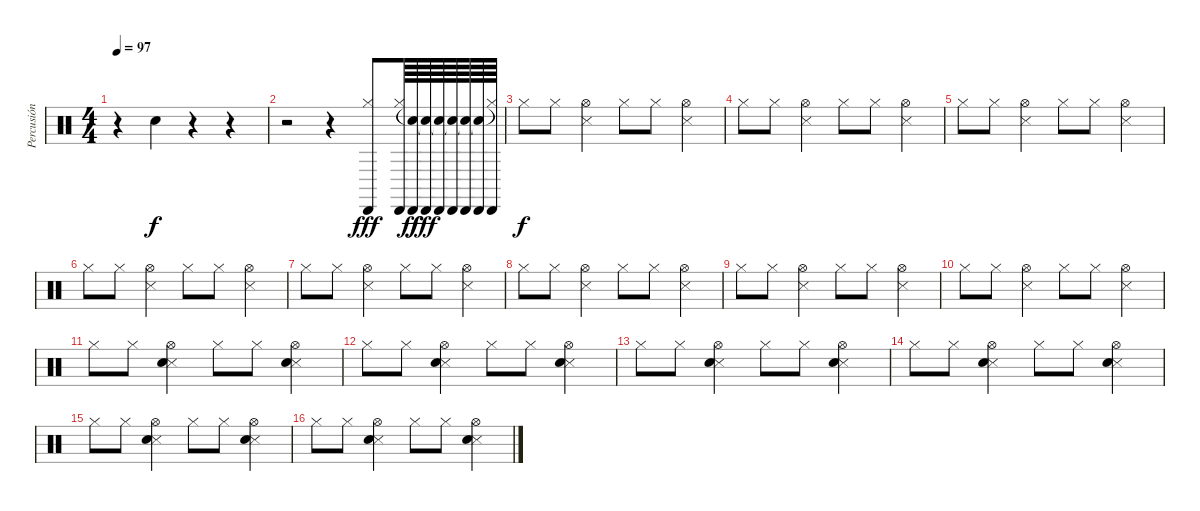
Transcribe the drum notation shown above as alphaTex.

\track ("Percusión" "Percusión") {instrument percussion}
\staff {score}
\articulation defaults
\ts (4 4)
\tempo 97
\clef neutral
\ks c
r.4{dy f} "Electric Snare (hit)".4 r.4 r.4 |
r.2 r.4 ("Hi-Hat (closed)" "Cabasa (hit)").8{dy fff} ("Hi-Hat (closed)" "Cabasa (hit)").64 ("Snare (hit)"{t} "Cabasa (hit)").64{dy ff} ("Snare (hit)"{t} "Cabasa (hit)").64{dy fff} ("Snare (hit)"{t} "Cabasa (hit)").64 ("Snare (hit)"{t} "Cabasa (hit)").64 ("Snare (hit)"{t} "Cabasa (hit)").64 ("Snare (hit)"{t} "Cabasa (hit)").64 ("Hi-Hat (closed)"{t} "Cabasa (hit)").64 |
"Hi-Hat (closed)".8{dy f} "Hi-Hat (closed)".8 ("Hi-Hat (open)" "Snare (side stick) 3").4 "Hi-Hat (closed)".8 "Hi-Hat (closed)".8 ("Hi-Hat (open)" "Snare (side stick) 3").4 |
"Hi-Hat (closed)".8 "Hi-Hat (closed)".8 ("Hi-Hat (open)" "Snare (side stick) 3").4 "Hi-Hat (closed)".8 "Hi-Hat (closed)".8 ("Hi-Hat (open)" "Snare (side stick) 3").4 |
"Hi-Hat (closed)".8 "Hi-Hat (closed)".8 ("Hi-Hat (open)" "Snare (side stick) 3").4 "Hi-Hat (closed)".8 "Hi-Hat (closed)".8 ("Hi-Hat (open)" "Snare (side stick) 3").4 |
"Hi-Hat (closed)".8 "Hi-Hat (closed)".8 ("Hi-Hat (open)" "Snare (side stick) 3").4 "Hi-Hat (closed)".8 "Hi-Hat (closed)".8 ("Hi-Hat (open)" "Snare (side stick) 3").4 |
"Hi-Hat (closed)".8 "Hi-Hat (closed)".8 ("Hi-Hat (open)" "Snare (side stick) 3").4 "Hi-Hat (closed)".8 "Hi-Hat (closed)".8 ("Hi-Hat (open)" "Snare (side stick) 3").4 |
"Hi-Hat (closed)".8 "Hi-Hat (closed)".8 ("Hi-Hat (open)" "Snare (side stick) 3").4 "Hi-Hat (closed)".8 "Hi-Hat (closed)".8 ("Hi-Hat (open)" "Snare (side stick) 3").4 |
"Hi-Hat (closed)".8 "Hi-Hat (closed)".8 ("Hi-Hat (open)" "Snare (side stick) 3").4 "Hi-Hat (closed)".8 "Hi-Hat (closed)".8 ("Hi-Hat (open)" "Snare (side stick) 3").4 |
"Hi-Hat (closed)".8 "Hi-Hat (closed)".8 ("Hi-Hat (open)" "Snare (side stick) 3").4 "Hi-Hat (closed)".8 "Hi-Hat (closed)".8 ("Hi-Hat (open)" "Snare (side stick) 3").4 |
"Hi-Hat (closed)".8 "Hi-Hat (closed)".8 ("Hi-Hat (open)" "Snare (side stick) 3" "Electric Snare (hit)").4 "Hi-Hat (closed)".8 "Hi-Hat (closed)".8 ("Hi-Hat (open)" "Snare (side stick) 3" "Electric Snare (hit)").4 |
"Hi-Hat (closed)".8 "Hi-Hat (closed)".8 ("Hi-Hat (open)" "Snare (side stick) 3" "Electric Snare (hit)").4 "Hi-Hat (closed)".8 "Hi-Hat (closed)".8 ("Hi-Hat (open)" "Snare (side stick) 3" "Electric Snare (hit)").4 |
"Hi-Hat (closed)".8 "Hi-Hat (closed)".8 ("Hi-Hat (open)" "Snare (side stick) 3" "Electric Snare (hit)").4 "Hi-Hat (closed)".8 "Hi-Hat (closed)".8 ("Hi-Hat (open)" "Snare (side stick) 3" "Electric Snare (hit)").4 |
"Hi-Hat (closed)".8 "Hi-Hat (closed)".8 ("Hi-Hat (open)" "Snare (side stick) 3" "Electric Snare (hit)").4 "Hi-Hat (closed)".8 "Hi-Hat (closed)".8 ("Hi-Hat (open)" "Snare (side stick) 3" "Electric Snare (hit)").4 |
"Hi-Hat (closed)".8 "Hi-Hat (closed)".8 ("Hi-Hat (open)" "Snare (side stick) 3" "Electric Snare (hit)").4 "Hi-Hat (closed)".8 "Hi-Hat (closed)".8 ("Hi-Hat (open)" "Snare (side stick) 3" "Electric Snare (hit)").4 |
"Hi-Hat (closed)".8 "Hi-Hat (closed)".8 ("Hi-Hat (open)" "Snare (side stick) 3" "Electric Snare (hit)").4 "Hi-Hat (closed)".8 "Hi-Hat (closed)".8 ("Hi-Hat (open)" "Snare (side stick) 3" "Electric Snare (hit)").4
